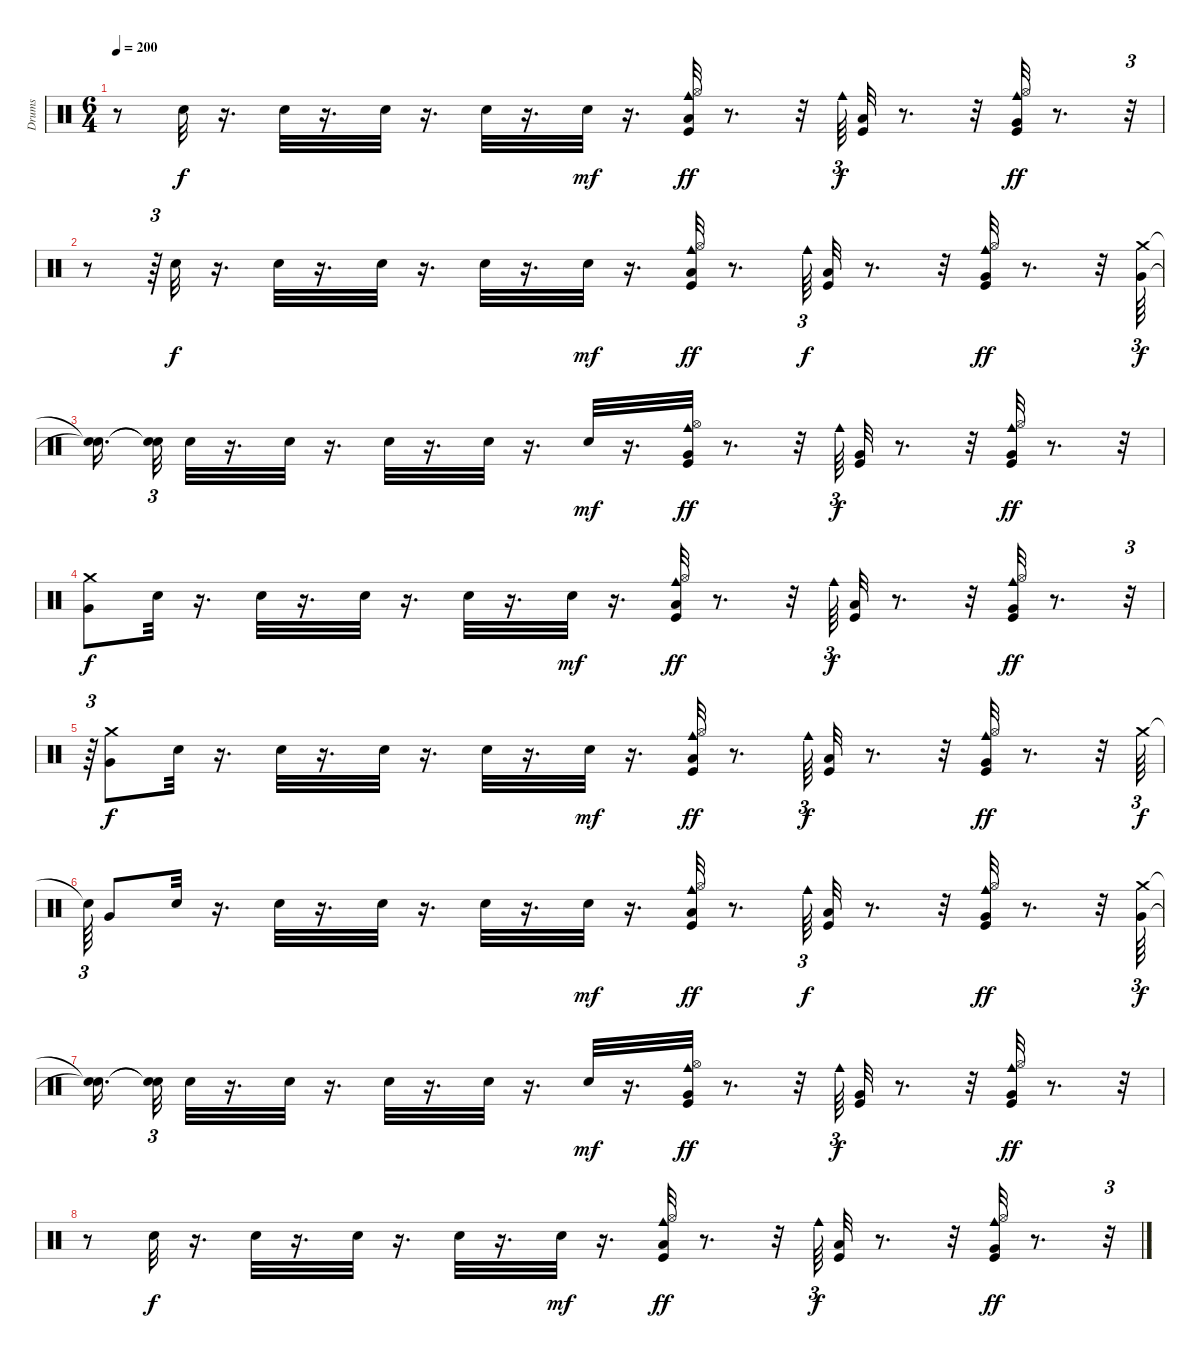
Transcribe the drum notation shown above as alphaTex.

\track ("Drums" "Drums") {instrument percussion}
\staff {score}
\articulation defaults
\ts (6 4)
\tempo 200
\clef neutral
\ks c
r.8{dy ff} "Snare (hit) 2".32{dy f} r.16{d} "Snare (hit) 2".32 r.16{d} "Snare (hit) 2".32 r.16{d} "Snare (hit) 2".32 r.16{d} "Snare (hit) 2".32{dy mf} r.16{d} ("Kick (hit)" "Hi-Hat (open)" "Cowbell medium (hit)" "Low Floor Tom (hit)").32{dy ff} r.8{d} r.32 "Cowbell medium (hit)".64{tu (3 2) dy f} ("Kick (hit)" "Low Floor Tom (hit)").32 r.8{d} r.32 ("Hi-Hat (open)" "Kick (hit)" "Cowbell medium (hit)" "Very Low Tom (hit)").32{dy ff} r.8{d} r.32{tu (3 2)} |
r.8 r.64{tu (3 2)} "Snare (hit) 2".32{dy f} r.16{d} "Snare (hit) 2".32 r.16{d} "Snare (hit) 2".32 r.16{d} "Snare (hit) 2".32 r.16{d} "Snare (hit) 2".32{dy mf} r.16{d} ("Kick (hit)" "Hi-Hat (open)" "Cowbell medium (hit)" "Low Floor Tom (hit)").32{dy ff} r.8{d} "Cowbell medium (hit)".64{tu (3 2) dy f} ("Kick (hit)" "Low Floor Tom (hit)").32 r.8{d} r.32 ("Hi-Hat (open)" "Kick (hit)" "Cowbell medium (hit)" "Very Low Tom (hit)").32{dy ff} r.8{d} r.32 ("Crash medium (hit)" "Very Low Tom (hit)").64{tu (3 2) dy f} |
("Snare (hit)"{t} "Snare (hit)"{t}).16{d} ("Snare (hit)"{t} "Snare (hit)"{t}).32{tu (3 2)} "Snare (hit) 2".32 r.16{d} "Snare (hit) 2".32 r.16{d} "Snare (hit) 2".32 r.16{d} "Snare (hit) 2".32 r.16{d} "Electric Snare (hit)".32{dy mf} r.16{d} ("Very Low Tom (hit)" "Kick (hit)" "Hi-Hat (open)" "Cowbell medium (hit)").32{dy ff} r.8{d} r.32 "Cowbell medium (hit)".64{tu (3 2) dy f} ("Very Low Tom (hit)" "Kick (hit)").32 r.8{d} r.32 ("Very Low Tom (hit)" "Hi-Hat (open)" "Kick (hit)" "Cowbell medium (hit)").32{dy ff} r.8{d} r.32 |
("Very Low Tom (hit)" "Crash medium (hit)").8{dy f} "Snare (hit) 2".32 r.16{d} "Snare (hit) 2".32 r.16{d} "Snare (hit) 2".32 r.16{d} "Snare (hit) 2".32 r.16{d} "Snare (hit) 2".32{dy mf} r.16{d} ("Kick (hit)" "Hi-Hat (open)" "Cowbell medium (hit)" "Low Floor Tom (hit)").32{dy ff} r.8{d} r.32 "Cowbell medium (hit)".64{tu (3 2) dy f} ("Kick (hit)" "Low Floor Tom (hit)").32 r.8{d} r.32 ("Hi-Hat (open)" "Kick (hit)" "Cowbell medium (hit)" "Very Low Tom (hit)").32{dy ff} r.8{d} r.32{tu (3 2)} |
r.64{tu (3 2)} ("Very Low Tom (hit)" "Crash medium (hit)").8{dy f} "Snare (hit) 2".32 r.16{d} "Snare (hit) 2".32 r.16{d} "Snare (hit) 2".32 r.16{d} "Snare (hit) 2".32 r.16{d} "Snare (hit) 2".32{dy mf} r.16{d} ("Kick (hit)" "Hi-Hat (open)" "Cowbell medium (hit)" "Low Floor Tom (hit)").32{dy ff} r.8{d} "Cowbell medium (hit)".64{tu (3 2) dy f} ("Kick (hit)" "Low Floor Tom (hit)").32 r.8{d} r.32 ("Hi-Hat (open)" "Kick (hit)" "Cowbell medium (hit)" "Very Low Tom (hit)").32{dy ff} r.8{d} r.32 "Crash medium (hit)".64{tu (3 2) dy f} |
"Snare (hit)"{t}.64{tu (3 2)} "Very Low Tom (hit)".8 "Snare (hit) 2".32 r.16{d} "Snare (hit) 2".32 r.16{d} "Snare (hit) 2".32 r.16{d} "Snare (hit) 2".32 r.16{d} "Snare (hit) 2".32{dy mf} r.16{d} ("Kick (hit)" "Hi-Hat (open)" "Cowbell medium (hit)" "Low Floor Tom (hit)").32{dy ff} r.8{d} "Cowbell medium (hit)".64{tu (3 2) dy f} ("Kick (hit)" "Low Floor Tom (hit)").32 r.8{d} r.32 ("Hi-Hat (open)" "Kick (hit)" "Cowbell medium (hit)" "Very Low Tom (hit)").32{dy ff} r.8{d} r.32 ("Very Low Tom (hit)" "Crash medium (hit)").64{tu (3 2) dy f} |
("Snare (hit)"{t} "Snare (hit)"{t}).16{d} ("Snare (hit)"{t} "Snare (hit)"{t}).32{tu (3 2)} "Snare (hit) 2".32 r.16{d} "Snare (hit) 2".32 r.16{d} "Snare (hit) 2".32 r.16{d} "Snare (hit) 2".32 r.16{d} "Electric Snare (hit)".32{dy mf} r.16{d} ("Very Low Tom (hit)" "Kick (hit)" "Hi-Hat (open)" "Cowbell medium (hit)").32{dy ff} r.8{d} r.32 "Cowbell medium (hit)".64{tu (3 2) dy f} ("Very Low Tom (hit)" "Kick (hit)").32 r.8{d} r.32 ("Very Low Tom (hit)" "Hi-Hat (open)" "Kick (hit)" "Cowbell medium (hit)").32{dy ff} r.8{d} r.32 |
r.8 "Snare (hit) 2".32{dy f} r.16{d} "Snare (hit) 2".32 r.16{d} "Snare (hit) 2".32 r.16{d} "Snare (hit) 2".32 r.16{d} "Snare (hit) 2".32{dy mf} r.16{d} ("Kick (hit)" "Hi-Hat (open)" "Cowbell medium (hit)" "Low Floor Tom (hit)").32{dy ff} r.8{d} r.32 "Cowbell medium (hit)".64{tu (3 2) dy f} ("Kick (hit)" "Low Floor Tom (hit)").32 r.8{d} r.32 ("Hi-Hat (open)" "Kick (hit)" "Cowbell medium (hit)" "Very Low Tom (hit)").32{dy ff} r.8{d} r.32{tu (3 2)}
